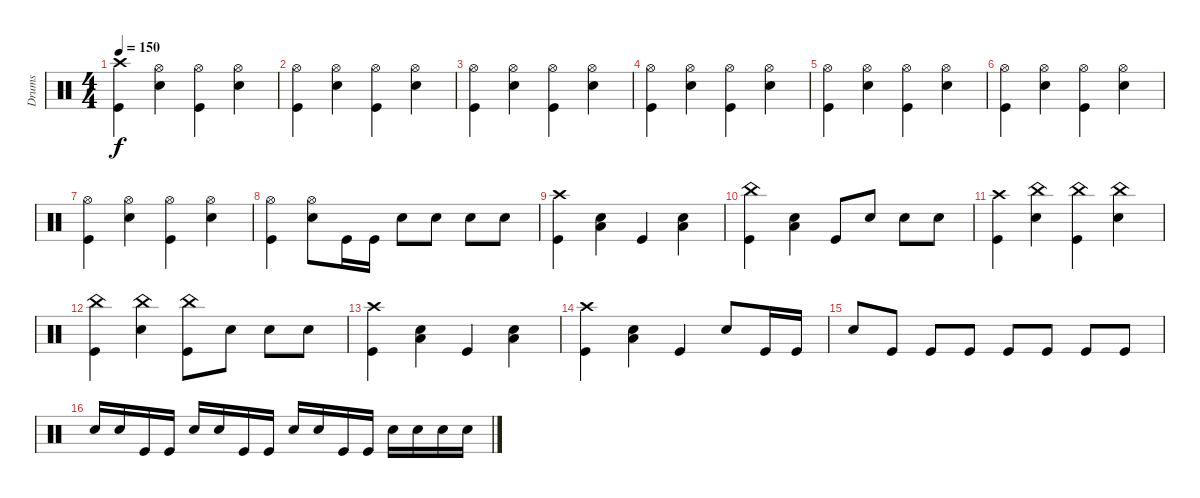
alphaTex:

\track ("Drums" "Drums") {instrument percussion}
\staff {score}
\articulation defaults
\ts (4 4)
\tempo 150
\clef neutral
\ks c
("Kick (hit)" "Crash high (hit)").4{dy f} ("Snare (hit) 2" "Hi-Hat (open)").4 ("Kick (hit)" "Hi-Hat (open)").4 ("Hi-Hat (open)" "Snare (hit) 2").4 |
("Kick (hit)" "Hi-Hat (open)").4 ("Snare (hit) 2" "Hi-Hat (open)").4 ("Kick (hit)" "Hi-Hat (open)").4 ("Snare (hit) 2" "Hi-Hat (open)").4 |
("Kick (hit)" "Hi-Hat (open)").4 ("Snare (hit) 2" "Hi-Hat (open)").4 ("Kick (hit)" "Hi-Hat (open)").4 ("Snare (hit) 2" "Hi-Hat (open)").4 |
("Kick (hit)" "Hi-Hat (open)").4 ("Snare (hit) 2" "Hi-Hat (open)").4 ("Kick (hit)" "Hi-Hat (open)").4 ("Snare (hit) 2" "Hi-Hat (open)").4 |
("Kick (hit)" "Hi-Hat (open)").4 ("Snare (hit) 2" "Hi-Hat (open)").4 ("Kick (hit)" "Hi-Hat (open)").4 ("Snare (hit) 2" "Hi-Hat (open)").4 |
("Kick (hit)" "Hi-Hat (open)").4 ("Snare (hit) 2" "Hi-Hat (open)").4 ("Kick (hit)" "Hi-Hat (open)").4 ("Snare (hit) 2" "Hi-Hat (open)").4 |
("Kick (hit)" "Hi-Hat (open)").4 ("Snare (hit) 2" "Hi-Hat (open)").4 ("Kick (hit)" "Hi-Hat (open)").4 ("Snare (hit) 2" "Hi-Hat (open)").4 |
("Kick (hit)" "Hi-Hat (open)").4 ("Snare (hit) 2" "Hi-Hat (open)").8 "Kick (hit)".16 "Kick (hit)".16 "Snare (hit) 2".8 "Snare (hit) 2".8 "Snare (hit) 2".8 "Snare (hit) 2".8 |
("Kick (hit)" "Crash high (hit)").4 ("Snare (hit) 2" "Low Floor Tom (hit)").4 "Kick (hit)".4 ("Snare (hit) 2" "Low Floor Tom (hit)").4 |
("Kick (hit)" "China (hit)").4 ("Snare (hit) 2" "Low Floor Tom (hit)").4 "Kick (hit)".8 "Snare (hit) 2".8 "Snare (hit) 2".8 "Snare (hit) 2".8 |
("Kick (hit)" "Crash high (hit)").4 ("Snare (hit) 2" "China (hit)").4 ("Kick (hit)" "China (hit)").4 ("Snare (hit) 2" "China (hit)").4 |
("Kick (hit)" "China (hit)").4 ("Snare (hit) 2" "China (hit)").4 ("Kick (hit)" "China (hit)").8 "Snare (hit) 2".8 "Snare (hit) 2".8 "Snare (hit) 2".8 |
("Kick (hit)" "Crash high (hit)").4 ("Snare (hit) 2" "Low Floor Tom (hit)").4 "Kick (hit)".4 ("Snare (hit) 2" "Low Floor Tom (hit)").4 |
("Kick (hit)" "Crash high (hit)").4 ("Snare (hit) 2" "Low Floor Tom (hit)").4 "Kick (hit)".4 "Snare (hit) 2".8 "Kick (hit)".16 "Kick (hit)".16 |
"Snare (hit) 2".8 "Kick (hit)".8 "Kick (hit)".8 "Kick (hit)".8 "Kick (hit)".8 "Kick (hit)".8 "Kick (hit)".8 "Kick (hit)".8 |
"Snare (hit) 2".16 "Snare (hit) 2".16 "Kick (hit)".16 "Kick (hit)".16 "Snare (hit) 2".16 "Snare (hit) 2".16 "Kick (hit)".16 "Kick (hit)".16 "Snare (hit) 2".16 "Snare (hit) 2".16 "Kick (hit)".16 "Kick (hit)".16 "Snare (hit) 2".16 "Snare (hit) 2".16 "Snare (hit) 2".16 "Snare (hit) 2".16
